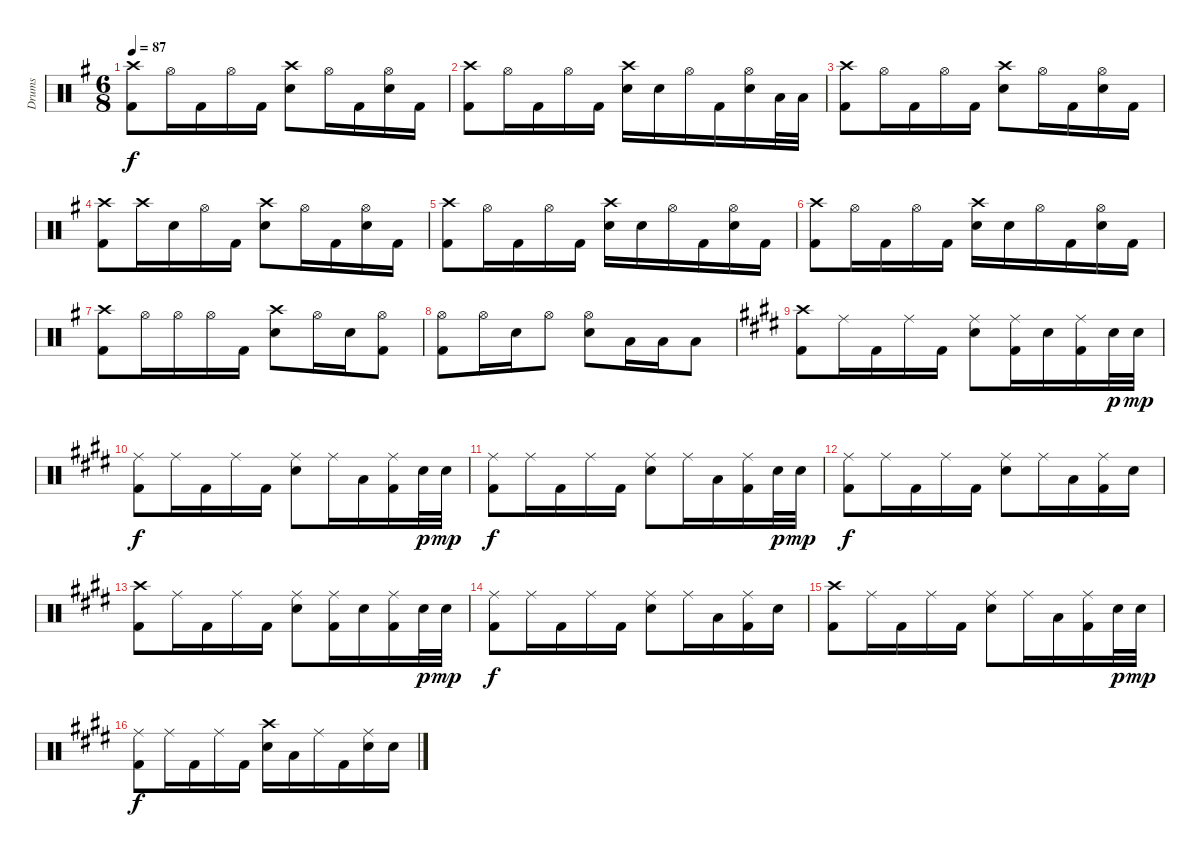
\track ("Drums" "Drums") {instrument percussion}
\staff {score}
\articulation defaults
\ts (6 8)
\tempo 87
\clef neutral
\ks g
("Crash high (hit)" "Kick (hit) 2").8{dy f} "Hi-Hat (open)".16 "Kick (hit) 2".16 "Hi-Hat (open)".16 "Kick (hit) 2".16 ("Crash high (hit)" "Electric Snare (hit)").8 "Hi-Hat (open)".16 "Kick (hit) 2".16 ("Hi-Hat (open)" "Electric Snare (hit)").16 "Kick (hit) 2".16 |
("Crash high (hit)" "Kick (hit) 2").8 "Hi-Hat (open)".16 "Kick (hit) 2".16 "Hi-Hat (open)".16 "Kick (hit) 2".16 ("Crash high (hit)" "Electric Snare (hit)").16 "Electric Snare (hit)".16 "Hi-Hat (open)".16 "Kick (hit) 2".16 ("Hi-Hat (open)" "Electric Snare (hit)").16 "Low Tom (hit)".32 "Low Tom (hit)".32 |
("Crash high (hit)" "Kick (hit) 2").8 "Hi-Hat (open)".16 "Kick (hit) 2".16 "Hi-Hat (open)".16 "Kick (hit) 2".16 ("Crash high (hit)" "Electric Snare (hit)").8 "Hi-Hat (open)".16 "Kick (hit) 2".16 ("Hi-Hat (open)" "Electric Snare (hit)").16 "Kick (hit) 2".16 |
("Crash high (hit)" "Kick (hit) 2").8 "Crash high (hit)".16 "Electric Snare (hit)".16 "Hi-Hat (open)".16 "Kick (hit) 2".16 ("Crash high (hit)" "Electric Snare (hit)").8 "Hi-Hat (open)".16 "Kick (hit) 2".16 ("Hi-Hat (open)" "Electric Snare (hit)").16 "Kick (hit) 2".16 |
("Crash high (hit)" "Kick (hit) 2").8 "Hi-Hat (open)".16 "Kick (hit) 2".16 "Hi-Hat (open)".16 "Kick (hit) 2".16 ("Crash high (hit)" "Electric Snare (hit)").16 "Electric Snare (hit)".16 "Hi-Hat (open)".16 "Kick (hit) 2".16 ("Hi-Hat (open)" "Electric Snare (hit)").16 "Kick (hit) 2".16 |
("Crash high (hit)" "Kick (hit) 2").8 "Hi-Hat (open)".16 "Kick (hit) 2".16 "Hi-Hat (open)".16 "Kick (hit) 2".16 ("Crash high (hit)" "Electric Snare (hit)").16 "Electric Snare (hit)".16 "Hi-Hat (open)".16 "Kick (hit) 2".16 ("Hi-Hat (open)" "Electric Snare (hit)").16 "Kick (hit) 2".16 |
("Crash high (hit)" "Kick (hit) 2").8 "Hi-Hat (open)".16 "Hi-Hat (open)".16 "Hi-Hat (open)".16 "Kick (hit) 2".16 ("Crash high (hit)" "Electric Snare (hit)").8 "Hi-Hat (open)".16 "Electric Snare (hit)".16 ("Hi-Hat (open)" "Kick (hit) 2").8 |
("Hi-Hat (open)" "Kick (hit) 2").8 "Hi-Hat (open)".16 "Electric Snare (hit)".16 "Hi-Hat (open)".8 ("Hi-Hat (open)" "Electric Snare (hit)").8 "Low Tom (hit)".16 "Low Tom (hit)".16 "Low Tom (hit)".8 |
\ks e
("Crash high (hit)" "Kick (hit) 2").8 "Ride (middle)".16 "Kick (hit) 2".16 "Ride (middle)".16 "Kick (hit) 2".16 ("Ride (middle)" "Electric Snare (hit)").8 ("Ride (middle)" "Kick (hit) 2").16 "Electric Snare (hit)".16 ("Ride (middle)" "Kick (hit) 2").16 "Electric Snare (hit)".32{dy p} "Electric Snare (hit)".32{dy mp} |
\ks c#minor
("Ride (middle)" "Kick (hit) 2").8{dy f} "Ride (middle)".16 "Kick (hit) 2".16 "Ride (middle)".16 "Kick (hit) 2".16 ("Ride (middle)" "Electric Snare (hit)").8 "Ride (middle)".16 "Low Tom (hit)".16 ("Ride (middle)" "Kick (hit) 2").16 "Electric Snare (hit)".32{dy p} "Electric Snare (hit)".32{dy mp} |
\ks e
("Ride (middle)" "Kick (hit) 2").8{dy f} "Ride (middle)".16 "Kick (hit) 2".16 "Ride (middle)".16 "Kick (hit) 2".16 ("Ride (middle)" "Electric Snare (hit)").8 "Ride (middle)".16 "Low Tom (hit)".16 ("Ride (middle)" "Kick (hit) 2").16 "Electric Snare (hit)".32{dy p} "Electric Snare (hit)".32{dy mp} |
\ks c#minor
("Ride (middle)" "Kick (hit) 2").8{dy f} "Ride (middle)".16 "Kick (hit) 2".16 "Ride (middle)".16 "Kick (hit) 2".16 ("Ride (middle)" "Electric Snare (hit)").8 "Ride (middle)".16 "Low Tom (hit)".16 ("Ride (middle)" "Kick (hit) 2").16 "Electric Snare (hit)".16 |
\ks e
("Crash high (hit)" "Kick (hit) 2").8 "Ride (middle)".16 "Kick (hit) 2".16 "Ride (middle)".16 "Kick (hit) 2".16 ("Ride (middle)" "Electric Snare (hit)").8 ("Ride (middle)" "Kick (hit) 2").16 "Electric Snare (hit)".16 ("Ride (middle)" "Kick (hit) 2").16 "Electric Snare (hit)".32{dy p} "Electric Snare (hit)".32{dy mp} |
\ks c#minor
("Ride (middle)" "Kick (hit) 2").8{dy f} "Ride (middle)".16 "Kick (hit) 2".16 "Ride (middle)".16 "Kick (hit) 2".16 ("Ride (middle)" "Electric Snare (hit)").8 "Ride (middle)".16 "Low Tom (hit)".16 ("Ride (middle)" "Kick (hit) 2").16 "Electric Snare (hit)".16 |
\ks e
("Crash high (hit)" "Kick (hit) 2").8 "Ride (middle)".16 "Kick (hit) 2".16 "Ride (middle)".16 "Kick (hit) 2".16 ("Ride (middle)" "Electric Snare (hit)").8 "Ride (middle)".16 "Low Tom (hit)".16 ("Ride (middle)" "Kick (hit) 2").16 "Electric Snare (hit)".32{dy p} "Electric Snare (hit)".32{dy mp} |
\ks c#minor
("Ride (middle)" "Kick (hit) 2").8{dy f} "Ride (middle)".16 "Kick (hit) 2".16 "Ride (middle)".16 "Kick (hit) 2".16 ("Crash high (hit)" "Electric Snare (hit)").16 "Low Tom (hit)".16 "Ride (middle)".16 "Kick (hit) 2".16 ("Ride (middle)" "Electric Snare (hit)").16 "Electric Snare (hit)".16
